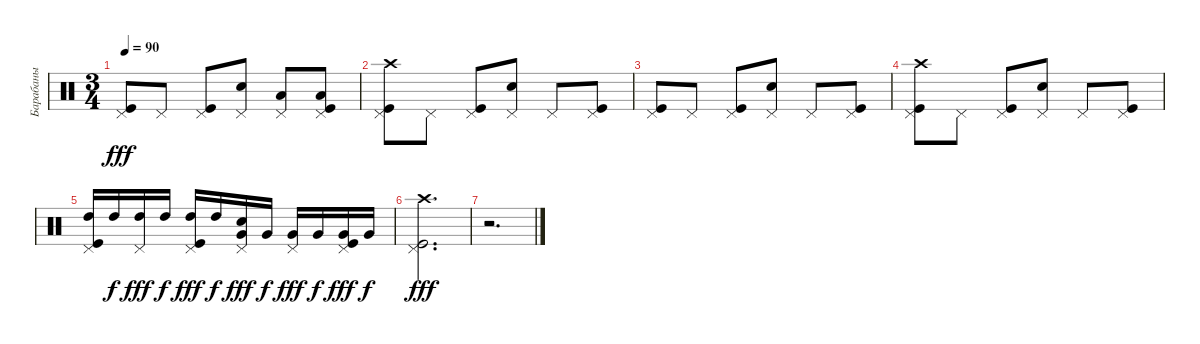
\track ("Барабаны" "Барабаны") {instrument percussion}
\staff {score}
\articulation defaults
\ts (3 4)
\tempo 90
\clef neutral
\ks c
("Kick (hit)" "Pedal Hi-Hat (hit)").8{dy fff} "Pedal Hi-Hat (hit)".8 ("Kick (hit)" "Pedal Hi-Hat (hit)").8 ("Snare (hit) 2" "Pedal Hi-Hat (hit)").8 ("Pedal Hi-Hat (hit)" "Low Floor Tom (hit)").8 ("Kick (hit)" "Pedal Hi-Hat (hit)" "Low Floor Tom (hit)").8 |
("Kick (hit)" "Pedal Hi-Hat (hit)" "Crash high (hit)").8 "Pedal Hi-Hat (hit)".8 ("Kick (hit)" "Pedal Hi-Hat (hit)").8 ("Snare (hit) 2" "Pedal Hi-Hat (hit)").8 "Pedal Hi-Hat (hit)".8 ("Kick (hit)" "Pedal Hi-Hat (hit)").8 |
("Kick (hit)" "Pedal Hi-Hat (hit)").8 "Pedal Hi-Hat (hit)".8 ("Kick (hit)" "Pedal Hi-Hat (hit)").8 ("Snare (hit) 2" "Pedal Hi-Hat (hit)").8 "Pedal Hi-Hat (hit)".8 ("Kick (hit)" "Pedal Hi-Hat (hit)").8 |
("Kick (hit)" "Pedal Hi-Hat (hit)" "Crash high (hit)").8 "Pedal Hi-Hat (hit)".8 ("Kick (hit)" "Pedal Hi-Hat (hit)").8 ("Snare (hit) 2" "Pedal Hi-Hat (hit)").8 "Pedal Hi-Hat (hit)".8 ("Kick (hit)" "Pedal Hi-Hat (hit)").8 |
("Kick (hit)" "Pedal Hi-Hat (hit)" "High Tom (hit)").16 "High Tom (hit)".16{dy f} ("Pedal Hi-Hat (hit)" "High Tom (hit)").16{dy fff} "High Tom (hit)".16{dy f} ("Kick (hit)" "Pedal Hi-Hat (hit)" "High Tom (hit)").16{dy fff} "High Tom (hit)".16{dy f} ("Snare (hit) 2" "Pedal Hi-Hat (hit)" "Very Low Tom (hit)").16{dy fff} "Very Low Tom (hit)".16{dy f} ("Pedal Hi-Hat (hit)" "Very Low Tom (hit)").16{dy fff} "Very Low Tom (hit)".16{dy f} ("Kick (hit)" "Pedal Hi-Hat (hit)" "Very Low Tom (hit)").16{dy fff} "Very Low Tom (hit)".16{dy f} |
("Kick (hit)" "Pedal Hi-Hat (hit)" "Crash high (hit)").2{d dy fff} |
r.2{d}
